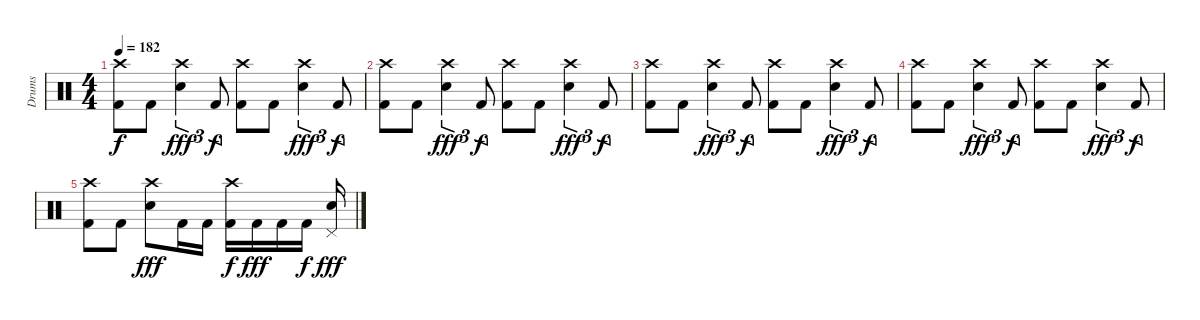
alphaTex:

\track ("Drums" "Drums") {instrument percussion}
\staff {score}
\articulation defaults
\ts (4 4)
\tempo 182
\clef neutral
\ks c
("Crash high (hit)" "Kick (hit) 2").8{dy f} "Kick (hit) 2".8 ("Crash high (hit)" "Electric Snare (hit)").4{tu (3 2) dy fff} "Kick (hit) 2".8{tu (3 2) dy f} ("Crash high (hit)" "Kick (hit) 2").8 "Kick (hit) 2".8 ("Crash high (hit)" "Electric Snare (hit)").4{tu (3 2) dy fff} "Kick (hit) 2".8{tu (3 2) dy f} |
("Crash high (hit)" "Kick (hit) 2").8 "Kick (hit) 2".8 ("Crash high (hit)" "Electric Snare (hit)").4{tu (3 2) dy fff} "Kick (hit) 2".8{tu (3 2) dy f} ("Crash high (hit)" "Kick (hit) 2").8 "Kick (hit) 2".8 ("Crash high (hit)" "Electric Snare (hit)").4{tu (3 2) dy fff} "Kick (hit) 2".8{tu (3 2) dy f} |
("Crash high (hit)" "Kick (hit) 2").8 "Kick (hit) 2".8 ("Crash high (hit)" "Electric Snare (hit)").4{tu (3 2) dy fff} "Kick (hit) 2".8{tu (3 2) dy f} ("Crash high (hit)" "Kick (hit) 2").8 "Kick (hit) 2".8 ("Crash high (hit)" "Electric Snare (hit)").4{tu (3 2) dy fff} "Kick (hit) 2".8{tu (3 2) dy f} |
("Crash high (hit)" "Kick (hit) 2").8 "Kick (hit) 2".8 ("Crash high (hit)" "Electric Snare (hit)").4{tu (3 2) dy fff} "Kick (hit) 2".8{tu (3 2) dy f} ("Crash high (hit)" "Kick (hit) 2").8 "Kick (hit) 2".8 ("Crash high (hit)" "Electric Snare (hit)").4{tu (3 2) dy fff} "Kick (hit) 2".8{tu (3 2) dy f} |
("Crash high (hit)" "Kick (hit) 2").8 "Kick (hit) 2".8 ("Crash high (hit)" "Electric Snare (hit)").8{dy fff} "Kick (hit) 2".16 "Kick (hit) 2".16 ("Crash high (hit)" "Kick (hit) 2").16{dy f} "Kick (hit) 2".16{dy fff} "Kick (hit) 2".16 "Kick (hit) 2".16{dy f} ("Pedal Hi-Hat (hit)" "Electric Snare (hit)").16{dy fff}
